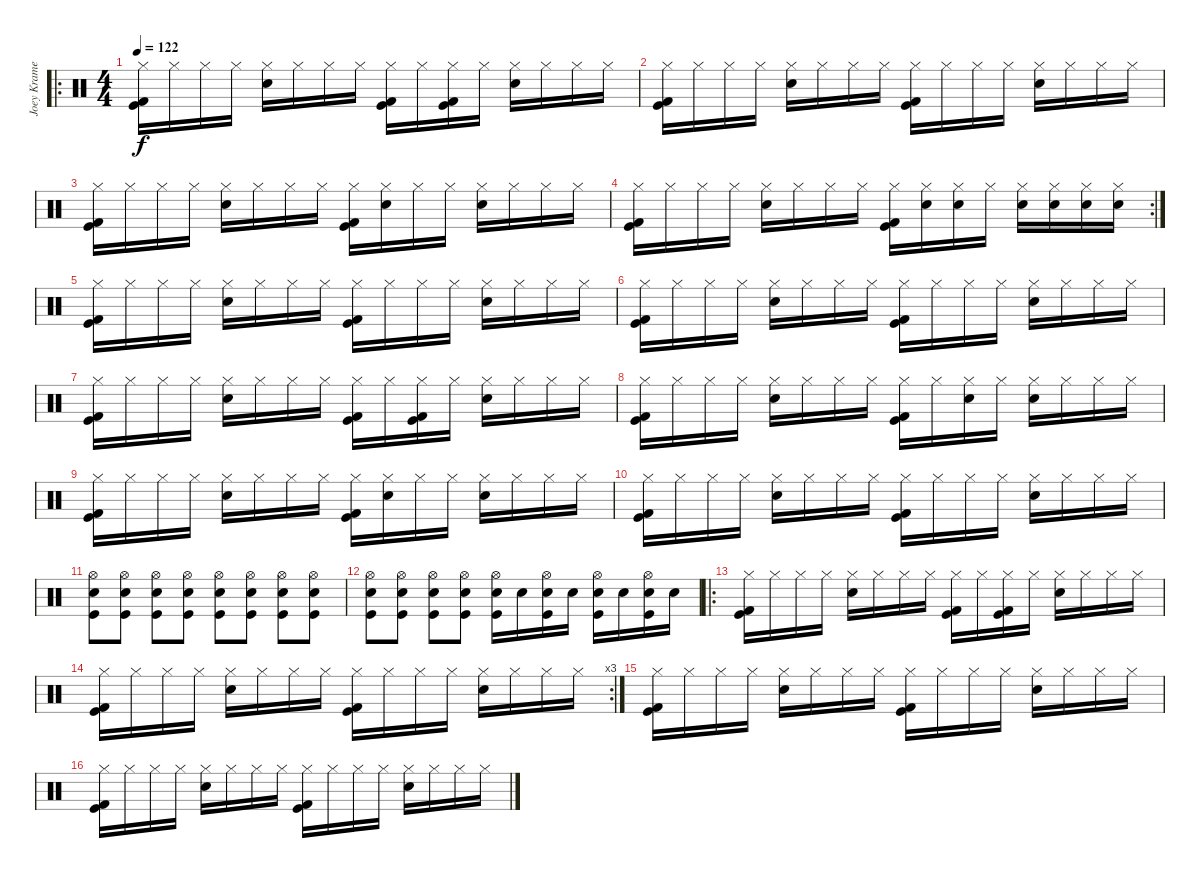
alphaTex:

\track ("Joey Kramer" "Joey Krame") {instrument percussion}
\staff {score}
\articulation defaults
\ro
\ts (4 4)
\tempo 122
\clef neutral
\ks c
("Hi-Hat (closed)" "Kick (hit)" "Kick (hit) 2").16{dy f} "Hi-Hat (closed)".16 "Hi-Hat (closed)".16 "Hi-Hat (closed)".16 ("Hi-Hat (closed)" "Snare (hit) 2").16 "Hi-Hat (closed)".16 "Hi-Hat (closed)".16 "Hi-Hat (closed)".16 ("Hi-Hat (closed)" "Kick (hit)" "Kick (hit) 2").16 "Hi-Hat (closed)".16 ("Hi-Hat (closed)" "Kick (hit)" "Kick (hit) 2").16 "Hi-Hat (closed)".16 ("Hi-Hat (closed)" "Snare (hit) 2").16 "Hi-Hat (closed)".16 "Hi-Hat (closed)".16 "Hi-Hat (closed)".16 |
("Hi-Hat (closed)" "Kick (hit)" "Kick (hit) 2").16 "Hi-Hat (closed)".16 "Hi-Hat (closed)".16 "Hi-Hat (closed)".16 ("Hi-Hat (closed)" "Snare (hit) 2").16 "Hi-Hat (closed)".16 "Hi-Hat (closed)".16 "Hi-Hat (closed)".16 ("Hi-Hat (closed)" "Kick (hit)" "Kick (hit) 2").16 "Hi-Hat (closed)".16 "Hi-Hat (closed)".16 "Hi-Hat (closed)".16 ("Hi-Hat (closed)" "Snare (hit) 2").16 "Hi-Hat (closed)".16 "Hi-Hat (closed)".16 "Hi-Hat (closed)".16 |
("Hi-Hat (closed)" "Kick (hit)" "Kick (hit) 2").16 "Hi-Hat (closed)".16 "Hi-Hat (closed)".16 "Hi-Hat (closed)".16 ("Hi-Hat (closed)" "Snare (hit) 2").16 "Hi-Hat (closed)".16 "Hi-Hat (closed)".16 "Hi-Hat (closed)".16 ("Hi-Hat (closed)" "Kick (hit)" "Kick (hit) 2").16 ("Hi-Hat (closed)" "Snare (hit) 2").16 "Hi-Hat (closed)".16 "Hi-Hat (closed)".16 ("Hi-Hat (closed)" "Snare (hit) 2").16 "Hi-Hat (closed)".16 "Hi-Hat (closed)".16 "Hi-Hat (closed)".16 |
\rc 2
("Hi-Hat (closed)" "Kick (hit)" "Kick (hit) 2").16 "Hi-Hat (closed)".16 "Hi-Hat (closed)".16 "Hi-Hat (closed)".16 ("Hi-Hat (closed)" "Snare (hit) 2").16 "Hi-Hat (closed)".16 "Hi-Hat (closed)".16 "Hi-Hat (closed)".16 ("Hi-Hat (closed)" "Kick (hit)" "Kick (hit) 2").16 ("Hi-Hat (closed)" "Snare (hit) 2").16 ("Hi-Hat (closed)" "Snare (hit) 2").16 "Hi-Hat (closed)".16 ("Hi-Hat (closed)" "Snare (hit) 2").16 ("Hi-Hat (closed)" "Snare (hit) 2").16 ("Hi-Hat (closed)" "Snare (hit) 2").16 ("Hi-Hat (closed)" "Snare (hit) 2").16 |
("Hi-Hat (closed)" "Kick (hit)" "Kick (hit) 2").16 "Hi-Hat (closed)".16 "Hi-Hat (closed)".16 "Hi-Hat (closed)".16 ("Hi-Hat (closed)" "Snare (hit) 2").16 "Hi-Hat (closed)".16 "Hi-Hat (closed)".16 "Hi-Hat (closed)".16 ("Hi-Hat (closed)" "Kick (hit)" "Kick (hit) 2").16 "Hi-Hat (closed)".16 "Hi-Hat (closed)".16 "Hi-Hat (closed)".16 ("Hi-Hat (closed)" "Snare (hit) 2").16 "Hi-Hat (closed)".16 "Hi-Hat (closed)".16 "Hi-Hat (closed)".16 |
("Hi-Hat (closed)" "Kick (hit)" "Kick (hit) 2").16 "Hi-Hat (closed)".16 "Hi-Hat (closed)".16 "Hi-Hat (closed)".16 ("Hi-Hat (closed)" "Snare (hit) 2").16 "Hi-Hat (closed)".16 "Hi-Hat (closed)".16 "Hi-Hat (closed)".16 ("Hi-Hat (closed)" "Kick (hit)" "Kick (hit) 2").16 "Hi-Hat (closed)".16 "Hi-Hat (closed)".16 "Hi-Hat (closed)".16 ("Hi-Hat (closed)" "Snare (hit) 2").16 "Hi-Hat (closed)".16 "Hi-Hat (closed)".16 "Hi-Hat (closed)".16 |
("Hi-Hat (closed)" "Kick (hit)" "Kick (hit) 2").16 "Hi-Hat (closed)".16 "Hi-Hat (closed)".16 "Hi-Hat (closed)".16 ("Hi-Hat (closed)" "Snare (hit) 2").16 "Hi-Hat (closed)".16 "Hi-Hat (closed)".16 "Hi-Hat (closed)".16 ("Hi-Hat (closed)" "Kick (hit)" "Kick (hit) 2").16 "Hi-Hat (closed)".16 ("Hi-Hat (closed)" "Kick (hit)" "Kick (hit) 2").16 "Hi-Hat (closed)".16 ("Hi-Hat (closed)" "Snare (hit) 2").16 "Hi-Hat (closed)".16 "Hi-Hat (closed)".16 "Hi-Hat (closed)".16 |
("Hi-Hat (closed)" "Kick (hit)" "Kick (hit) 2").16 "Hi-Hat (closed)".16 "Hi-Hat (closed)".16 "Hi-Hat (closed)".16 ("Hi-Hat (closed)" "Snare (hit) 2").16 "Hi-Hat (closed)".16 "Hi-Hat (closed)".16 "Hi-Hat (closed)".16 ("Hi-Hat (closed)" "Kick (hit)" "Kick (hit) 2").16 "Hi-Hat (closed)".16 ("Hi-Hat (closed)" "Snare (hit) 2").16 "Hi-Hat (closed)".16 ("Hi-Hat (closed)" "Snare (hit) 2").16 "Hi-Hat (closed)".16 "Hi-Hat (closed)".16 "Hi-Hat (closed)".16 |
("Hi-Hat (closed)" "Kick (hit)" "Kick (hit) 2").16 "Hi-Hat (closed)".16 "Hi-Hat (closed)".16 "Hi-Hat (closed)".16 ("Hi-Hat (closed)" "Snare (hit) 2").16 "Hi-Hat (closed)".16 "Hi-Hat (closed)".16 "Hi-Hat (closed)".16 ("Hi-Hat (closed)" "Kick (hit)" "Kick (hit) 2").16 ("Hi-Hat (closed)" "Snare (hit) 2").16 "Hi-Hat (closed)".16 "Hi-Hat (closed)".16 ("Hi-Hat (closed)" "Snare (hit) 2").16 "Hi-Hat (closed)".16 "Hi-Hat (closed)".16 "Hi-Hat (closed)".16 |
("Hi-Hat (closed)" "Kick (hit)" "Kick (hit) 2").16 "Hi-Hat (closed)".16 "Hi-Hat (closed)".16 "Hi-Hat (closed)".16 ("Hi-Hat (closed)" "Snare (hit) 2").16 "Hi-Hat (closed)".16 "Hi-Hat (closed)".16 "Hi-Hat (closed)".16 ("Hi-Hat (closed)" "Kick (hit)" "Kick (hit) 2").16 "Hi-Hat (closed)".16 "Hi-Hat (closed)".16 "Hi-Hat (closed)".16 ("Hi-Hat (closed)" "Snare (hit) 2").16 "Hi-Hat (closed)".16 "Hi-Hat (closed)".16 "Hi-Hat (closed)".16 |
("Kick (hit)" "Snare (hit) 2" "Hi-Hat (open)").8 ("Kick (hit)" "Snare (hit) 2" "Hi-Hat (open)").8 ("Kick (hit)" "Snare (hit) 2" "Hi-Hat (open)").8 ("Kick (hit)" "Snare (hit) 2" "Hi-Hat (open)").8 ("Kick (hit)" "Snare (hit) 2" "Hi-Hat (open)").8 ("Kick (hit)" "Snare (hit) 2" "Hi-Hat (open)").8 ("Kick (hit)" "Snare (hit) 2" "Hi-Hat (open)").8 ("Kick (hit)" "Snare (hit) 2" "Hi-Hat (open)").8 |
("Kick (hit)" "Snare (hit) 2" "Hi-Hat (open)").8 ("Kick (hit)" "Snare (hit) 2" "Hi-Hat (open)").8 ("Kick (hit)" "Snare (hit) 2" "Hi-Hat (open)").8 ("Kick (hit)" "Snare (hit) 2" "Hi-Hat (open)").8 ("Kick (hit)" "Snare (hit) 2" "Hi-Hat (open)").16 "Snare (hit) 2".16 ("Kick (hit)" "Snare (hit) 2" "Hi-Hat (open)").16 "Snare (hit) 2".16 ("Kick (hit)" "Snare (hit) 2" "Hi-Hat (open)").16 "Snare (hit) 2".16 ("Kick (hit)" "Snare (hit) 2" "Hi-Hat (open)").16 "Snare (hit) 2".16 |
\ro
("Hi-Hat (closed)" "Kick (hit)" "Kick (hit) 2").16 "Hi-Hat (closed)".16 "Hi-Hat (closed)".16 "Hi-Hat (closed)".16 ("Hi-Hat (closed)" "Snare (hit) 2").16 "Hi-Hat (closed)".16 "Hi-Hat (closed)".16 "Hi-Hat (closed)".16 ("Hi-Hat (closed)" "Kick (hit)" "Kick (hit) 2").16 "Hi-Hat (closed)".16 ("Hi-Hat (closed)" "Kick (hit)" "Kick (hit) 2").16 "Hi-Hat (closed)".16 ("Hi-Hat (closed)" "Snare (hit) 2").16 "Hi-Hat (closed)".16 "Hi-Hat (closed)".16 "Hi-Hat (closed)".16 |
\rc 3
("Hi-Hat (closed)" "Kick (hit)" "Kick (hit) 2").16 "Hi-Hat (closed)".16 "Hi-Hat (closed)".16 "Hi-Hat (closed)".16 ("Hi-Hat (closed)" "Snare (hit) 2").16 "Hi-Hat (closed)".16 "Hi-Hat (closed)".16 "Hi-Hat (closed)".16 ("Hi-Hat (closed)" "Kick (hit)" "Kick (hit) 2").16 "Hi-Hat (closed)".16 "Hi-Hat (closed)".16 "Hi-Hat (closed)".16 ("Hi-Hat (closed)" "Snare (hit) 2").16 "Hi-Hat (closed)".16 "Hi-Hat (closed)".16 "Hi-Hat (closed)".16 |
("Hi-Hat (closed)" "Kick (hit)" "Kick (hit) 2").16 "Hi-Hat (closed)".16 "Hi-Hat (closed)".16 "Hi-Hat (closed)".16 ("Hi-Hat (closed)" "Snare (hit) 2").16 "Hi-Hat (closed)".16 "Hi-Hat (closed)".16 "Hi-Hat (closed)".16 ("Hi-Hat (closed)" "Kick (hit)" "Kick (hit) 2").16 "Hi-Hat (closed)".16 "Hi-Hat (closed)".16 "Hi-Hat (closed)".16 ("Hi-Hat (closed)" "Snare (hit) 2").16 "Hi-Hat (closed)".16 "Hi-Hat (closed)".16 "Hi-Hat (closed)".16 |
("Hi-Hat (closed)" "Kick (hit)" "Kick (hit) 2").16 "Hi-Hat (closed)".16 "Hi-Hat (closed)".16 "Hi-Hat (closed)".16 ("Hi-Hat (closed)" "Snare (hit) 2").16 "Hi-Hat (closed)".16 "Hi-Hat (closed)".16 "Hi-Hat (closed)".16 ("Hi-Hat (closed)" "Kick (hit)" "Kick (hit) 2").16 "Hi-Hat (closed)".16 "Hi-Hat (closed)".16 "Hi-Hat (closed)".16 ("Hi-Hat (closed)" "Snare (hit) 2").16 "Hi-Hat (closed)".16 "Hi-Hat (closed)".16 "Hi-Hat (closed)".16
